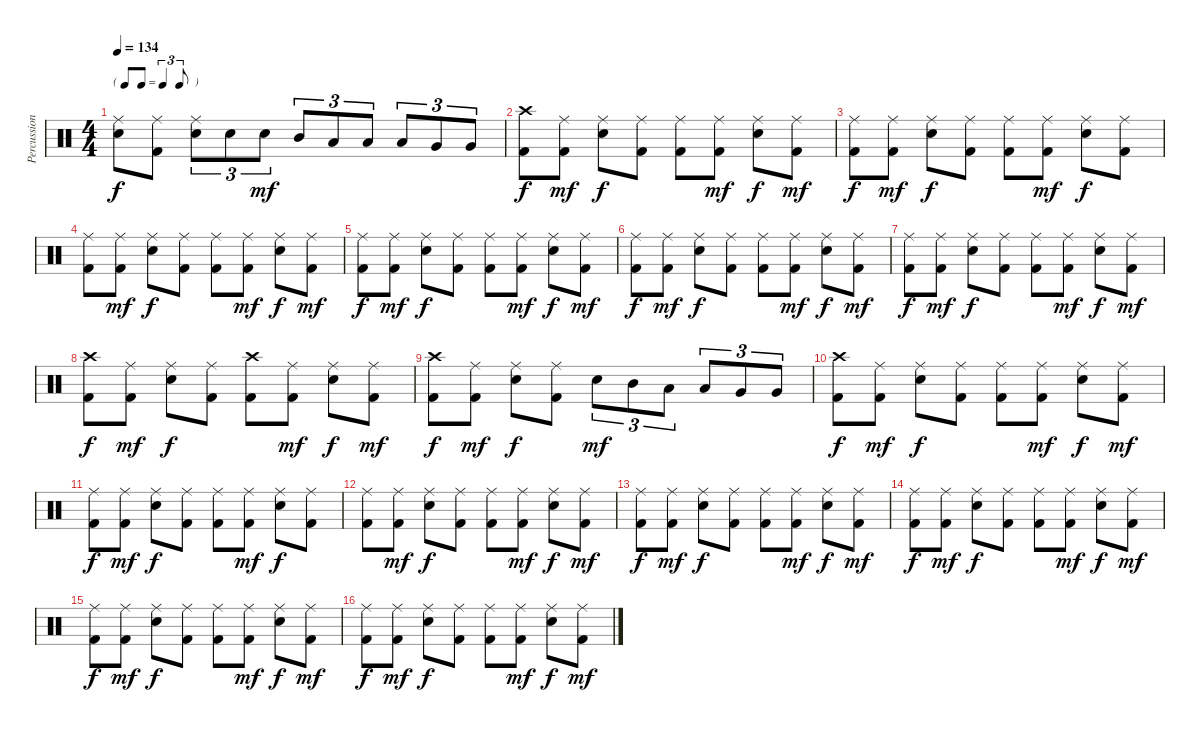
\track ("Percussion" "Percussion") {instrument percussion}
\staff {score}
\articulation defaults
\ts (4 4)
\tf triplet8th
\tempo 134
\clef neutral
\ks c
("Ride (middle)" "Snare (hit) 2").8{dy f} ("Ride (middle)" "Kick (hit) 2").8 ("Ride (middle)" "Snare (hit) 2").8{tu (3 2)} "Snare (hit) 2".8{tu (3 2)} "Snare (hit) 2".8{tu (3 2) dy mf} "Mid Tom (hit)".8{tu (3 2)} "Low Tom (hit)".8{tu (3 2)} "Low Tom (hit)".8{tu (3 2)} "Low Tom (hit)".8{tu (3 2)} "Very Low Tom (hit)".8{tu (3 2)} "Very Low Tom (hit)".8{tu (3 2)} |
("Crash high (hit)" "Kick (hit) 2").8{dy f} ("Ride (middle)" "Kick (hit) 2").8{dy mf} ("Ride (middle)" "Snare (hit) 2").8{dy f} ("Ride (middle)" "Kick (hit) 2").8 ("Ride (middle)" "Kick (hit) 2").8 ("Ride (middle)" "Kick (hit) 2").8{dy mf} ("Ride (middle)" "Snare (hit) 2").8{dy f} ("Ride (middle)" "Kick (hit) 2").8{dy mf} |
("Ride (middle)" "Kick (hit) 2").8{dy f} ("Ride (middle)" "Kick (hit) 2").8{dy mf} ("Ride (middle)" "Snare (hit) 2").8{dy f} ("Ride (middle)" "Kick (hit) 2").8 ("Ride (middle)" "Kick (hit) 2").8 ("Ride (middle)" "Kick (hit) 2").8{dy mf} ("Ride (middle)" "Snare (hit) 2").8{dy f} ("Ride (middle)" "Kick (hit) 2").8 |
("Ride (middle)" "Kick (hit) 2").8 ("Ride (middle)" "Kick (hit) 2").8{dy mf} ("Ride (middle)" "Snare (hit) 2").8{dy f} ("Ride (middle)" "Kick (hit) 2").8 ("Ride (middle)" "Kick (hit) 2").8 ("Ride (middle)" "Kick (hit) 2").8{dy mf} ("Ride (middle)" "Snare (hit) 2").8{dy f} ("Ride (middle)" "Kick (hit) 2").8{dy mf} |
("Ride (middle)" "Kick (hit) 2").8{dy f} ("Ride (middle)" "Kick (hit) 2").8{dy mf} ("Ride (middle)" "Snare (hit) 2").8{dy f} ("Ride (middle)" "Kick (hit) 2").8 ("Ride (middle)" "Kick (hit) 2").8 ("Ride (middle)" "Kick (hit) 2").8{dy mf} ("Ride (middle)" "Snare (hit) 2").8{dy f} ("Ride (middle)" "Kick (hit) 2").8{dy mf} |
("Ride (middle)" "Kick (hit) 2").8{dy f} ("Ride (middle)" "Kick (hit) 2").8{dy mf} ("Ride (middle)" "Snare (hit) 2").8{dy f} ("Ride (middle)" "Kick (hit) 2").8 ("Ride (middle)" "Kick (hit) 2").8 ("Ride (middle)" "Kick (hit) 2").8{dy mf} ("Ride (middle)" "Snare (hit) 2").8{dy f} ("Ride (middle)" "Kick (hit) 2").8{dy mf} |
("Ride (middle)" "Kick (hit) 2").8{dy f} ("Ride (middle)" "Kick (hit) 2").8{dy mf} ("Ride (middle)" "Snare (hit) 2").8{dy f} ("Ride (middle)" "Kick (hit) 2").8 ("Ride (middle)" "Kick (hit) 2").8 ("Ride (middle)" "Kick (hit) 2").8{dy mf} ("Ride (middle)" "Snare (hit) 2").8{dy f} ("Ride (middle)" "Kick (hit) 2").8{dy mf} |
("Crash high (hit)" "Kick (hit) 2").8{dy f} ("Ride (middle)" "Kick (hit) 2").8{dy mf} ("Ride (middle)" "Snare (hit) 2").8{dy f} ("Ride (middle)" "Kick (hit) 2").8 ("Crash high (hit)" "Kick (hit) 2").8 ("Ride (middle)" "Kick (hit) 2").8{dy mf} ("Ride (middle)" "Snare (hit) 2").8{dy f} ("Ride (middle)" "Kick (hit) 2").8{dy mf} |
("Crash high (hit)" "Kick (hit) 2").8{dy f} ("Ride (middle)" "Kick (hit) 2").8{dy mf} ("Ride (middle)" "Snare (hit) 2").8{dy f} ("Ride (middle)" "Kick (hit) 2").8 "Snare (hit) 2".8{tu (3 2) dy mf} "Mid Tom (hit)".8{tu (3 2)} "Low Tom (hit)".8{tu (3 2)} "Low Tom (hit)".8{tu (3 2)} "Very Low Tom (hit)".8{tu (3 2)} "Very Low Tom (hit)".8{tu (3 2)} |
("Crash high (hit)" "Kick (hit) 2").8{dy f} ("Ride (middle)" "Kick (hit) 2").8{dy mf} ("Ride (middle)" "Snare (hit) 2").8{dy f} ("Ride (middle)" "Kick (hit) 2").8 ("Ride (middle)" "Kick (hit) 2").8 ("Ride (middle)" "Kick (hit) 2").8{dy mf} ("Ride (middle)" "Snare (hit) 2").8{dy f} ("Ride (middle)" "Kick (hit) 2").8{dy mf} |
("Ride (middle)" "Kick (hit) 2").8{dy f} ("Ride (middle)" "Kick (hit) 2").8{dy mf} ("Ride (middle)" "Snare (hit) 2").8{dy f} ("Ride (middle)" "Kick (hit) 2").8 ("Ride (middle)" "Kick (hit) 2").8 ("Ride (middle)" "Kick (hit) 2").8{dy mf} ("Ride (middle)" "Snare (hit) 2").8{dy f} ("Ride (middle)" "Kick (hit) 2").8 |
("Ride (middle)" "Kick (hit) 2").8 ("Ride (middle)" "Kick (hit) 2").8{dy mf} ("Ride (middle)" "Snare (hit) 2").8{dy f} ("Ride (middle)" "Kick (hit) 2").8 ("Ride (middle)" "Kick (hit) 2").8 ("Ride (middle)" "Kick (hit) 2").8{dy mf} ("Ride (middle)" "Snare (hit) 2").8{dy f} ("Ride (middle)" "Kick (hit) 2").8{dy mf} |
("Ride (middle)" "Kick (hit) 2").8{dy f} ("Ride (middle)" "Kick (hit) 2").8{dy mf} ("Ride (middle)" "Snare (hit) 2").8{dy f} ("Ride (middle)" "Kick (hit) 2").8 ("Ride (middle)" "Kick (hit) 2").8 ("Ride (middle)" "Kick (hit) 2").8{dy mf} ("Ride (middle)" "Snare (hit) 2").8{dy f} ("Ride (middle)" "Kick (hit) 2").8{dy mf} |
("Ride (middle)" "Kick (hit) 2").8{dy f} ("Ride (middle)" "Kick (hit) 2").8{dy mf} ("Ride (middle)" "Snare (hit) 2").8{dy f} ("Ride (middle)" "Kick (hit) 2").8 ("Ride (middle)" "Kick (hit) 2").8 ("Ride (middle)" "Kick (hit) 2").8{dy mf} ("Ride (middle)" "Snare (hit) 2").8{dy f} ("Ride (middle)" "Kick (hit) 2").8{dy mf} |
("Ride (middle)" "Kick (hit) 2").8{dy f} ("Ride (middle)" "Kick (hit) 2").8{dy mf} ("Ride (middle)" "Snare (hit) 2").8{dy f} ("Ride (middle)" "Kick (hit) 2").8 ("Ride (middle)" "Kick (hit) 2").8 ("Ride (middle)" "Kick (hit) 2").8{dy mf} ("Ride (middle)" "Snare (hit) 2").8{dy f} ("Ride (middle)" "Kick (hit) 2").8{dy mf} |
("Ride (middle)" "Kick (hit) 2").8{dy f} ("Ride (middle)" "Kick (hit) 2").8{dy mf} ("Ride (middle)" "Snare (hit) 2").8{dy f} ("Ride (middle)" "Kick (hit) 2").8 ("Ride (middle)" "Kick (hit) 2").8 ("Ride (middle)" "Kick (hit) 2").8{dy mf} ("Ride (middle)" "Snare (hit) 2").8{dy f} ("Ride (middle)" "Kick (hit) 2").8{dy mf}
